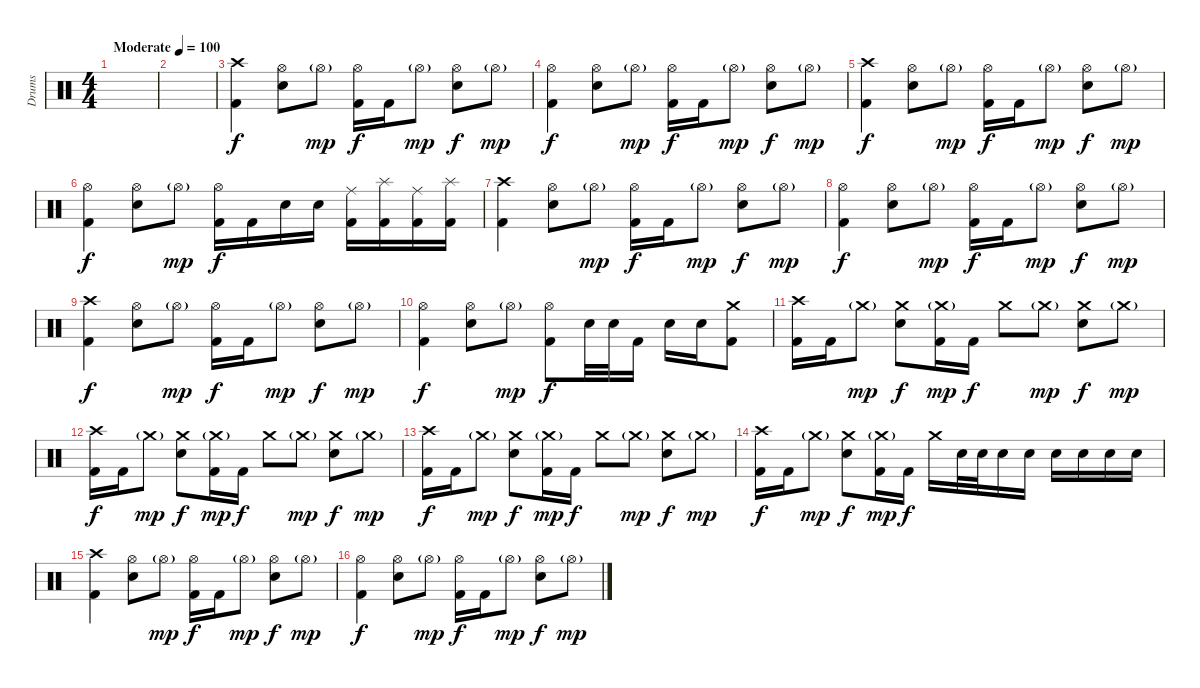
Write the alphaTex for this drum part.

\track ("Drums" "Drums") {instrument percussion}
\staff {score}
\articulation defaults
\ts (4 4)
\tempo (100 "Moderate")
\clef neutral
\ks c
|
|
("Crash high (hit)" "Kick (hit) 2").4 ("Hi-Hat (open)" "Snare (hit) 2").8 "Hi-Hat (open)"{g}.8{dy mp} ("Hi-Hat (open)" "Kick (hit) 2").16{dy f} "Kick (hit) 2".16 "Hi-Hat (open)"{g}.8{dy mp} ("Hi-Hat (open)" "Snare (hit) 2").8{dy f} "Hi-Hat (open)"{g}.8{dy mp} |
("Hi-Hat (open)" "Kick (hit) 2").4{dy f} ("Hi-Hat (open)" "Snare (hit) 2").8 "Hi-Hat (open)"{g}.8{dy mp} ("Hi-Hat (open)" "Kick (hit) 2").16{dy f} "Kick (hit) 2".16 "Hi-Hat (open)"{g}.8{dy mp} ("Hi-Hat (open)" "Snare (hit) 2").8{dy f} "Hi-Hat (open)"{g}.8{dy mp} |
("Crash high (hit)" "Kick (hit) 2").4{dy f} ("Hi-Hat (open)" "Snare (hit) 2").8 "Hi-Hat (open)"{g}.8{dy mp} ("Hi-Hat (open)" "Kick (hit) 2").16{dy f} "Kick (hit) 2".16 "Hi-Hat (open)"{g}.8{dy mp} ("Hi-Hat (open)" "Snare (hit) 2").8{dy f} "Hi-Hat (open)"{g}.8{dy mp} |
("Hi-Hat (open)" "Kick (hit) 2").4{dy f} ("Hi-Hat (open)" "Snare (hit) 2").8 "Hi-Hat (open)"{g}.8{dy mp} ("Hi-Hat (open)" "Kick (hit) 2").16{dy f} "Kick (hit) 2".16 "Snare (hit) 2".16 "Snare (hit) 2".16 ("Ride (middle)" "Kick (hit) 2").16 ("Splash (hit)" "Kick (hit) 2").16 ("Ride (middle)" "Kick (hit) 2").16 ("Splash (hit)" "Kick (hit) 2").16 |
("Crash high (hit)" "Kick (hit) 2").4 ("Hi-Hat (open)" "Snare (hit) 2").8 "Hi-Hat (open)"{g}.8{dy mp} ("Hi-Hat (open)" "Kick (hit) 2").16{dy f} "Kick (hit) 2".16 "Hi-Hat (open)"{g}.8{dy mp} ("Hi-Hat (open)" "Snare (hit) 2").8{dy f} "Hi-Hat (open)"{g}.8{dy mp} |
("Hi-Hat (open)" "Kick (hit) 2").4{dy f} ("Hi-Hat (open)" "Snare (hit) 2").8 "Hi-Hat (open)"{g}.8{dy mp} ("Hi-Hat (open)" "Kick (hit) 2").16{dy f} "Kick (hit) 2".16 "Hi-Hat (open)"{g}.8{dy mp} ("Hi-Hat (open)" "Snare (hit) 2").8{dy f} "Hi-Hat (open)"{g}.8{dy mp} |
("Crash high (hit)" "Kick (hit) 2").4{dy f} ("Hi-Hat (open)" "Snare (hit) 2").8 "Hi-Hat (open)"{g}.8{dy mp} ("Hi-Hat (open)" "Kick (hit) 2").16{dy f} "Kick (hit) 2".16 "Hi-Hat (open)"{g}.8{dy mp} ("Hi-Hat (open)" "Snare (hit) 2").8{dy f} "Hi-Hat (open)"{g}.8{dy mp} |
("Hi-Hat (open)" "Kick (hit) 2").4{dy f} ("Hi-Hat (open)" "Snare (hit) 2").8 "Hi-Hat (open)"{g}.8{dy mp} ("Hi-Hat (open)" "Kick (hit) 2").8{dy f} "Snare (hit) 2".32 "Snare (hit) 2".32 "Kick (hit) 2".16 "Snare (hit) 2".16 "Snare (hit) 2".16 ("Crash medium (hit)" "Kick (hit) 2").8 |
("Crash high (hit)" "Kick (hit) 2").16 "Kick (hit) 2".16 "Crash medium (hit)"{g}.8{dy mp} ("Crash medium (hit)" "Snare (hit) 2").8{dy f} ("Crash medium (hit)"{g} "Kick (hit) 2").16{dy mp} "Kick (hit) 2".16{dy f} "Crash medium (hit)".8 "Crash medium (hit)"{g}.8{dy mp} ("Crash medium (hit)" "Snare (hit) 2").8{dy f} "Crash medium (hit)"{g}.8{dy mp} |
("Crash high (hit)" "Kick (hit) 2").16{dy f} "Kick (hit) 2".16 "Crash medium (hit)"{g}.8{dy mp} ("Crash medium (hit)" "Snare (hit) 2").8{dy f} ("Crash medium (hit)"{g} "Kick (hit) 2").16{dy mp} "Kick (hit) 2".16{dy f} "Crash medium (hit)".8 "Crash medium (hit)"{g}.8{dy mp} ("Crash medium (hit)" "Snare (hit) 2").8{dy f} "Crash medium (hit)"{g}.8{dy mp} |
("Crash high (hit)" "Kick (hit) 2").16{dy f} "Kick (hit) 2".16 "Crash medium (hit)"{g}.8{dy mp} ("Crash medium (hit)" "Snare (hit) 2").8{dy f} ("Crash medium (hit)"{g} "Kick (hit) 2").16{dy mp} "Kick (hit) 2".16{dy f} "Crash medium (hit)".8 "Crash medium (hit)"{g}.8{dy mp} ("Crash medium (hit)" "Snare (hit) 2").8{dy f} "Crash medium (hit)"{g}.8{dy mp} |
("Crash high (hit)" "Kick (hit) 2").16{dy f} "Kick (hit) 2".16 "Crash medium (hit)"{g}.8{dy mp} ("Crash medium (hit)" "Snare (hit) 2").8{dy f} ("Crash medium (hit)"{g} "Kick (hit) 2").16{dy mp} "Kick (hit) 2".16{dy f} "Crash medium (hit)".16 "Snare (hit) 2".32 "Snare (hit) 2".32 "Snare (hit) 2".16 "Snare (hit) 2".16 "Snare (hit) 2".16 "Snare (hit) 2".16 "Snare (hit) 2".16 "Snare (hit) 2".16 |
("Crash high (hit)" "Kick (hit) 2").4 ("Hi-Hat (open)" "Snare (hit) 2").8 "Hi-Hat (open)"{g}.8{dy mp} ("Hi-Hat (open)" "Kick (hit) 2").16{dy f} "Kick (hit) 2".16 "Hi-Hat (open)"{g}.8{dy mp} ("Hi-Hat (open)" "Snare (hit) 2").8{dy f} "Hi-Hat (open)"{g}.8{dy mp} |
("Hi-Hat (open)" "Kick (hit) 2").4{dy f} ("Hi-Hat (open)" "Snare (hit) 2").8 "Hi-Hat (open)"{g}.8{dy mp} ("Hi-Hat (open)" "Kick (hit) 2").16{dy f} "Kick (hit) 2".16 "Hi-Hat (open)"{g}.8{dy mp} ("Hi-Hat (open)" "Snare (hit) 2").8{dy f} "Hi-Hat (open)"{g}.8{dy mp}
